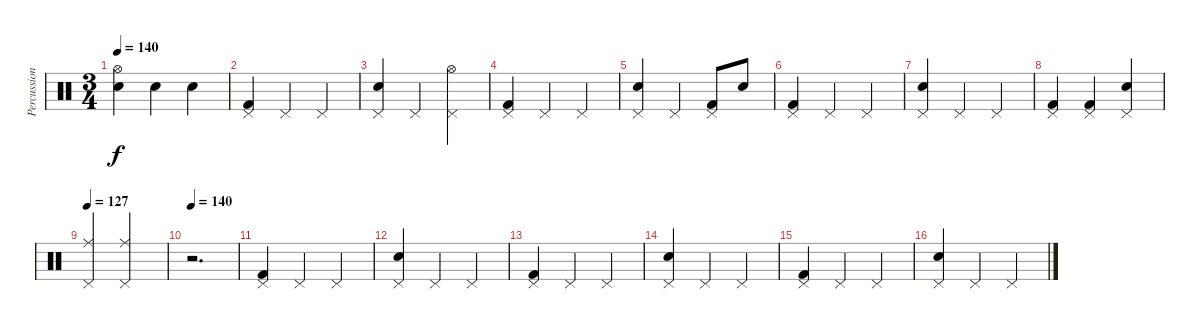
\track ("Percussion" "Percussion") {instrument percussion}
\staff {score}
\articulation defaults
\ts (3 4)
\tempo 140
\clef neutral
\ks c
("Hi-Hat (open)" "Electric Snare (hit)").4{dy f} "Electric Snare (hit)".4 "Electric Snare (hit)".4 |
("Pedal Hi-Hat (hit)" "Kick (hit) 2").4 "Pedal Hi-Hat (hit)".4 "Pedal Hi-Hat (hit)".4 |
("Pedal Hi-Hat (hit)" "Snare (hit) 2").4 "Pedal Hi-Hat (hit)".4 ("Pedal Hi-Hat (hit)" "Hi-Hat (open)").4 |
("Pedal Hi-Hat (hit)" "Kick (hit) 2").4 "Pedal Hi-Hat (hit)".4 "Pedal Hi-Hat (hit)".4 |
("Pedal Hi-Hat (hit)" "Snare (hit) 2").4 "Pedal Hi-Hat (hit)".4 ("Pedal Hi-Hat (hit)" "Kick (hit) 2").8 "Snare (hit) 2".8 |
("Pedal Hi-Hat (hit)" "Kick (hit) 2").4 "Pedal Hi-Hat (hit)".4 "Pedal Hi-Hat (hit)".4 |
("Pedal Hi-Hat (hit)" "Snare (hit) 2").4 "Pedal Hi-Hat (hit)".4 "Pedal Hi-Hat (hit)".4 |
("Pedal Hi-Hat (hit)" "Kick (hit) 2").4 ("Pedal Hi-Hat (hit)" "Kick (hit) 2").4 ("Pedal Hi-Hat (hit)" "Snare (hit) 2").4 |
\tempo 127
("Ride (middle)" "Pedal Hi-Hat (hit)").4 ("Ride (middle)" "Pedal Hi-Hat (hit)").2 |
\tempo 140
r.2{d} |
("Pedal Hi-Hat (hit)" "Kick (hit) 2").4 "Pedal Hi-Hat (hit)".4 "Pedal Hi-Hat (hit)".4 |
("Pedal Hi-Hat (hit)" "Snare (hit) 2").4 "Pedal Hi-Hat (hit)".4 "Pedal Hi-Hat (hit)".4 |
("Pedal Hi-Hat (hit)" "Kick (hit) 2").4 "Pedal Hi-Hat (hit)".4 "Pedal Hi-Hat (hit)".4 |
("Pedal Hi-Hat (hit)" "Snare (hit) 2").4 "Pedal Hi-Hat (hit)".4 "Pedal Hi-Hat (hit)".4 |
("Pedal Hi-Hat (hit)" "Kick (hit) 2").4 "Pedal Hi-Hat (hit)".4 "Pedal Hi-Hat (hit)".4 |
("Pedal Hi-Hat (hit)" "Snare (hit) 2").4 "Pedal Hi-Hat (hit)".4 "Pedal Hi-Hat (hit)".4
